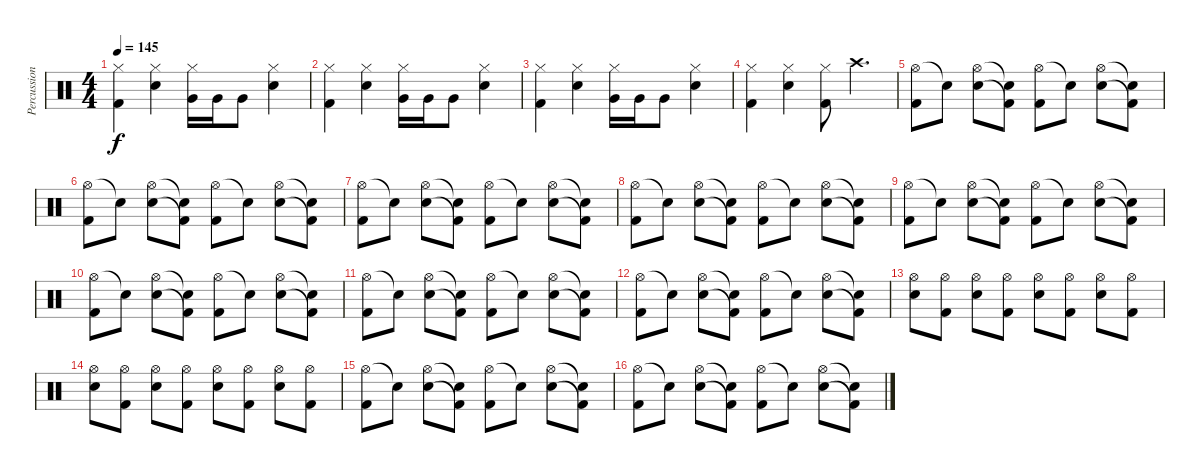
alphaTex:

\track ("Percussion" "Percussion") {instrument percussion}
\staff {score}
\articulation defaults
\ts (4 4)
\tempo 145
\clef neutral
\ks c
("Hi-Hat (closed)" "Kick (hit) 2").4{dy f} ("Hi-Hat (closed)" "Electric Snare (hit)").4 ("Hi-Hat (closed)" "Very Low Tom (hit)").16 "Very Low Tom (hit)".16 "Very Low Tom (hit)".8 ("Hi-Hat (closed)" "Electric Snare (hit)").4 |
("Hi-Hat (closed)" "Kick (hit) 2").4 ("Hi-Hat (closed)" "Electric Snare (hit)").4 ("Hi-Hat (closed)" "Very Low Tom (hit)").16 "Very Low Tom (hit)".16 "Very Low Tom (hit)".8 ("Hi-Hat (closed)" "Electric Snare (hit)").4 |
("Hi-Hat (closed)" "Kick (hit) 2").4 ("Hi-Hat (closed)" "Electric Snare (hit)").4 ("Hi-Hat (closed)" "Very Low Tom (hit)").16 "Very Low Tom (hit)".16 "Very Low Tom (hit)".8 ("Hi-Hat (closed)" "Electric Snare (hit)").4 |
("Hi-Hat (closed)" "Kick (hit) 2").4 ("Hi-Hat (closed)" "Electric Snare (hit)").4 ("Hi-Hat (closed)" "Kick (hit) 2").8 "Crash high (hit)".4{d} |
("Hi-Hat (open)" "Kick (hit) 2").8 "Snare (hit)"{t}.8 ("Hi-Hat (open)" "Electric Snare (hit)").8 ("Snare (hit)"{t} "Kick (hit) 2"{t}).8 ("Hi-Hat (open)" "Kick (hit) 2").8 "Snare (hit)"{t}.8 ("Hi-Hat (open)" "Electric Snare (hit)").8 ("Snare (hit)"{t} "Kick (hit) 2"{t}).8 |
("Hi-Hat (open)" "Kick (hit) 2").8 "Snare (hit)"{t}.8 ("Hi-Hat (open)" "Electric Snare (hit)").8 ("Snare (hit)"{t} "Kick (hit) 2"{t}).8 ("Hi-Hat (open)" "Kick (hit) 2").8 "Snare (hit)"{t}.8 ("Hi-Hat (open)" "Electric Snare (hit)").8 ("Snare (hit)"{t} "Kick (hit) 2"{t}).8 |
("Hi-Hat (open)" "Kick (hit) 2").8 "Snare (hit)"{t}.8 ("Hi-Hat (open)" "Electric Snare (hit)").8 ("Snare (hit)"{t} "Kick (hit) 2"{t}).8 ("Hi-Hat (open)" "Kick (hit) 2").8 "Snare (hit)"{t}.8 ("Hi-Hat (open)" "Electric Snare (hit)").8 ("Snare (hit)"{t} "Kick (hit) 2"{t}).8 |
("Hi-Hat (open)" "Kick (hit) 2").8 "Snare (hit)"{t}.8 ("Hi-Hat (open)" "Electric Snare (hit)").8 ("Snare (hit)"{t} "Kick (hit) 2"{t}).8 ("Hi-Hat (open)" "Kick (hit) 2").8 "Snare (hit)"{t}.8 ("Hi-Hat (open)" "Electric Snare (hit)").8 ("Snare (hit)"{t} "Kick (hit) 2"{t}).8 |
("Hi-Hat (open)" "Kick (hit) 2").8 "Snare (hit)"{t}.8 ("Hi-Hat (open)" "Electric Snare (hit)").8 ("Snare (hit)"{t} "Kick (hit) 2"{t}).8 ("Hi-Hat (open)" "Kick (hit) 2").8 "Snare (hit)"{t}.8 ("Hi-Hat (open)" "Electric Snare (hit)").8 ("Snare (hit)"{t} "Kick (hit) 2"{t}).8 |
("Hi-Hat (open)" "Kick (hit) 2").8 "Snare (hit)"{t}.8 ("Hi-Hat (open)" "Electric Snare (hit)").8 ("Snare (hit)"{t} "Kick (hit) 2"{t}).8 ("Hi-Hat (open)" "Kick (hit) 2").8 "Snare (hit)"{t}.8 ("Hi-Hat (open)" "Electric Snare (hit)").8 ("Snare (hit)"{t} "Kick (hit) 2"{t}).8 |
("Hi-Hat (open)" "Kick (hit) 2").8 "Snare (hit)"{t}.8 ("Hi-Hat (open)" "Electric Snare (hit)").8 ("Snare (hit)"{t} "Kick (hit) 2"{t}).8 ("Hi-Hat (open)" "Kick (hit) 2").8 "Snare (hit)"{t}.8 ("Hi-Hat (open)" "Electric Snare (hit)").8 ("Snare (hit)"{t} "Kick (hit) 2"{t}).8 |
("Hi-Hat (open)" "Kick (hit) 2").8 "Snare (hit)"{t}.8 ("Hi-Hat (open)" "Electric Snare (hit)").8 ("Snare (hit)"{t} "Kick (hit) 2"{t}).8 ("Hi-Hat (open)" "Kick (hit) 2").8 "Snare (hit)"{t}.8 ("Hi-Hat (open)" "Electric Snare (hit)").8 ("Snare (hit)"{t} "Kick (hit) 2"{t}).8 |
("Hi-Hat (open)" "Electric Snare (hit)").8 ("Hi-Hat (open)" "Kick (hit) 2").8 ("Hi-Hat (open)" "Electric Snare (hit)").8 ("Hi-Hat (open)" "Kick (hit) 2").8 ("Hi-Hat (open)" "Electric Snare (hit)").8 ("Hi-Hat (open)" "Kick (hit) 2").8 ("Hi-Hat (open)" "Electric Snare (hit)").8 ("Hi-Hat (open)" "Kick (hit) 2").8 |
("Hi-Hat (open)" "Electric Snare (hit)").8 ("Hi-Hat (open)" "Kick (hit) 2").8 ("Hi-Hat (open)" "Electric Snare (hit)").8 ("Hi-Hat (open)" "Kick (hit) 2").8 ("Hi-Hat (open)" "Electric Snare (hit)").8 ("Hi-Hat (open)" "Kick (hit) 2").8 ("Hi-Hat (open)" "Electric Snare (hit)").8 ("Hi-Hat (open)" "Kick (hit) 2").8 |
("Hi-Hat (open)" "Kick (hit) 2").8 "Snare (hit)"{t}.8 ("Hi-Hat (open)" "Electric Snare (hit)").8 ("Snare (hit)"{t} "Kick (hit) 2"{t}).8 ("Hi-Hat (open)" "Kick (hit) 2").8 "Snare (hit)"{t}.8 ("Hi-Hat (open)" "Electric Snare (hit)").8 ("Snare (hit)"{t} "Kick (hit) 2"{t}).8 |
("Hi-Hat (open)" "Kick (hit) 2").8 "Snare (hit)"{t}.8 ("Hi-Hat (open)" "Electric Snare (hit)").8 ("Snare (hit)"{t} "Kick (hit) 2"{t}).8 ("Hi-Hat (open)" "Kick (hit) 2").8 "Snare (hit)"{t}.8 ("Hi-Hat (open)" "Electric Snare (hit)").8 ("Snare (hit)"{t} "Kick (hit) 2"{t}).8
